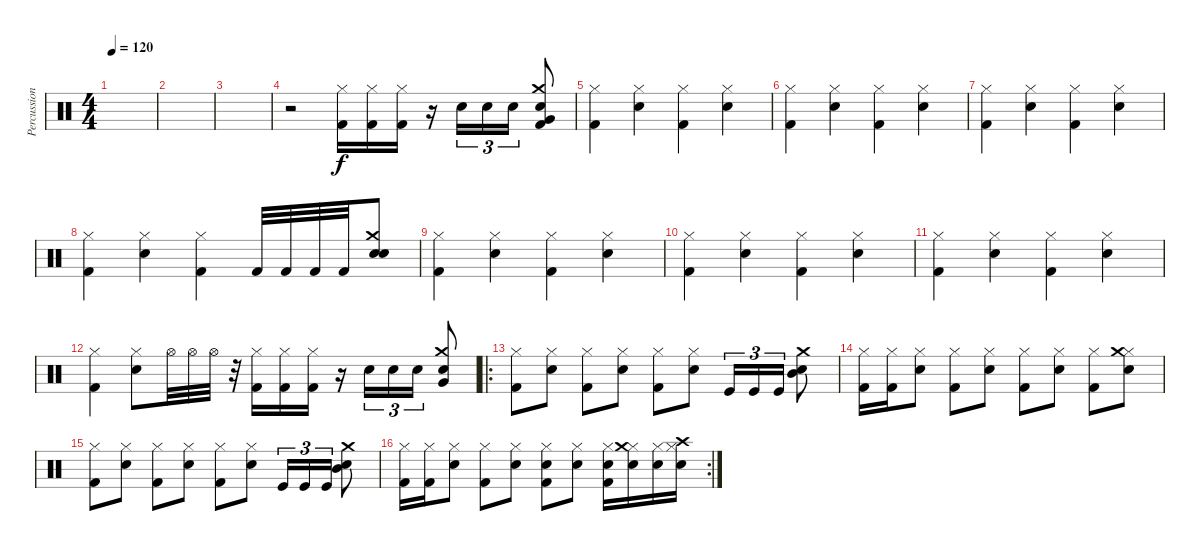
\track ("Percussions" "Percussion") {instrument percussion}
\staff {score}
\articulation defaults
\ts (4 4)
\tempo 120
\clef neutral
\ks c
|
|
|
r.2 ("Kick (hit) 2" "Hi-Hat (closed)").16 ("Kick (hit) 2" "Hi-Hat (closed)").16 ("Kick (hit) 2" "Hi-Hat (closed)").16 r.16 "Electric Snare (hit)".16{tu (3 2)} "Electric Snare (hit)".16{tu (3 2)} "Electric Snare (hit)".16{tu (3 2)} ("Crash medium (hit)" "Kick (hit) 2" "Electric Snare (hit)" "Very Low Tom (hit)").8 |
("Kick (hit) 2" "Hi-Hat (closed)").4 ("Electric Snare (hit)" "Hi-Hat (closed)").4 ("Kick (hit) 2" "Hi-Hat (closed)").4 ("Electric Snare (hit)" "Hi-Hat (closed)").4 |
("Kick (hit) 2" "Hi-Hat (closed)").4 ("Electric Snare (hit)" "Hi-Hat (closed)").4 ("Kick (hit) 2" "Hi-Hat (closed)").4 ("Electric Snare (hit)" "Hi-Hat (closed)").4 |
("Kick (hit) 2" "Hi-Hat (closed)").4 ("Electric Snare (hit)" "Hi-Hat (closed)").4 ("Kick (hit) 2" "Hi-Hat (closed)").4 ("Electric Snare (hit)" "Hi-Hat (closed)").4 |
("Kick (hit) 2" "Hi-Hat (closed)").4 ("Electric Snare (hit)" "Hi-Hat (closed)").4 ("Kick (hit) 2" "Hi-Hat (closed)").4 "Kick (hit) 2".32 "Kick (hit) 2".32 "Kick (hit) 2".32 "Kick (hit) 2".32 ("Crash medium (hit)" "Snare (hit) 2" "Electric Snare (hit)").8 |
("Kick (hit) 2" "Hi-Hat (closed)").4 ("Electric Snare (hit)" "Hi-Hat (closed)").4 ("Kick (hit) 2" "Hi-Hat (closed)").4 ("Electric Snare (hit)" "Hi-Hat (closed)").4 |
("Kick (hit) 2" "Hi-Hat (closed)").4 ("Electric Snare (hit)" "Hi-Hat (closed)").4 ("Kick (hit) 2" "Hi-Hat (closed)").4 ("Electric Snare (hit)" "Hi-Hat (closed)").4 |
("Kick (hit) 2" "Hi-Hat (closed)").4 ("Electric Snare (hit)" "Hi-Hat (closed)").4 ("Kick (hit) 2" "Hi-Hat (closed)").4 ("Electric Snare (hit)" "Hi-Hat (closed)").4 |
("Kick (hit) 2" "Hi-Hat (closed)").4 ("Electric Snare (hit)" "Hi-Hat (closed)").8 "Hi-Hat (open)".32 "Hi-Hat (open)".32 "Hi-Hat (open)".32 r.32 ("Kick (hit) 2" "Hi-Hat (closed)").16 ("Kick (hit) 2" "Hi-Hat (closed)").16 ("Kick (hit) 2" "Hi-Hat (closed)").16 r.16 "Electric Snare (hit)".16{tu (3 2)} "Electric Snare (hit)".16{tu (3 2)} "Electric Snare (hit)".16{tu (3 2)} ("Electric Snare (hit)" "Crash medium (hit)" "Very Low Tom (hit)").8 |
\ro
("Kick (hit) 2" "Hi-Hat (closed)").8 ("Electric Snare (hit)" "Hi-Hat (closed)").8 ("Kick (hit) 2" "Hi-Hat (closed)").8 ("Electric Snare (hit)" "Hi-Hat (closed)").8 ("Kick (hit) 2" "Hi-Hat (closed)").8 ("Electric Snare (hit)" "Hi-Hat (closed)").8 "Kick (hit)".16{tu (3 2)} "Kick (hit)".16{tu (3 2)} "Kick (hit)".16{tu (3 2)} ("Electric Snare (hit)" "Crash medium (hit)" "Mid Tom (hit)").8 |
("Kick (hit) 2" "Hi-Hat (closed)").16 ("Kick (hit) 2" "Hi-Hat (closed)").16 ("Electric Snare (hit)" "Hi-Hat (closed)").8 ("Kick (hit) 2" "Hi-Hat (closed)").8 ("Electric Snare (hit)" "Hi-Hat (closed)").8 ("Kick (hit) 2" "Hi-Hat (closed)").8 ("Electric Snare (hit)" "Hi-Hat (closed)").8 ("Kick (hit) 2" "Hi-Hat (closed)").8 ("Electric Snare (hit)" "Hi-Hat (closed)" "Crash medium (hit)").8 |
("Kick (hit) 2" "Hi-Hat (closed)").8 ("Electric Snare (hit)" "Hi-Hat (closed)").8 ("Kick (hit) 2" "Hi-Hat (closed)").8 ("Electric Snare (hit)" "Hi-Hat (closed)").8 ("Kick (hit) 2" "Hi-Hat (closed)").8 ("Electric Snare (hit)" "Hi-Hat (closed)").8 "Kick (hit)".16{tu (3 2)} "Kick (hit)".16{tu (3 2)} "Kick (hit)".16{tu (3 2)} ("Electric Snare (hit)" "Crash medium (hit)" "Mid Tom (hit)").8 |
\rc 2
("Kick (hit) 2" "Hi-Hat (closed)").16 ("Kick (hit) 2" "Hi-Hat (closed)").16 ("Electric Snare (hit)" "Hi-Hat (closed)").8 ("Kick (hit) 2" "Hi-Hat (closed)").8 ("Electric Snare (hit)" "Hi-Hat (closed)").8 ("Kick (hit) 2" "Electric Snare (hit)" "Hi-Hat (closed)").8 ("Electric Snare (hit)" "Hi-Hat (closed)").8 ("Kick (hit) 2" "Electric Snare (hit)" "Hi-Hat (closed)").16 ("Electric Snare (hit)" "Hi-Hat (closed)" "Crash medium (hit)").16 ("Electric Snare (hit)" "Hi-Hat (closed)").16 ("Electric Snare (hit)" "Hi-Hat (closed)" "Crash high (hit)").16
